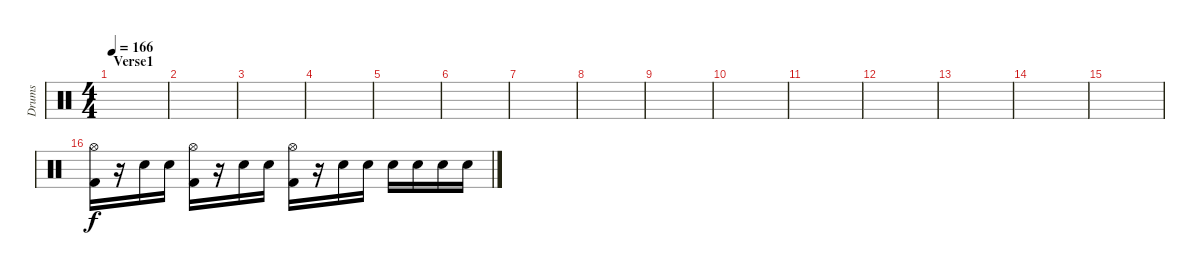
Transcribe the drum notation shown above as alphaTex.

\track ("Drums" "Drums") {instrument percussion}
\staff {score}
\articulation defaults
\ts (4 4)
\section ("" "Verse1")
\tempo 166
\clef neutral
\ks c
|
|
|
|
|
|
|
|
|
|
|
|
|
|
|
("Hi-Hat (open)" "Kick (hit) 2").16 r.16 "Electric Snare (hit)".16 "Electric Snare (hit)".16 ("Hi-Hat (open)" "Kick (hit) 2").16 r.16 "Electric Snare (hit)".16 "Electric Snare (hit)".16 ("Hi-Hat (open)" "Kick (hit) 2").16 r.16 "Electric Snare (hit)".16 "Electric Snare (hit)".16 "Electric Snare (hit)".16 "Electric Snare (hit)".16 "Electric Snare (hit)".16 "Electric Snare (hit)".16
